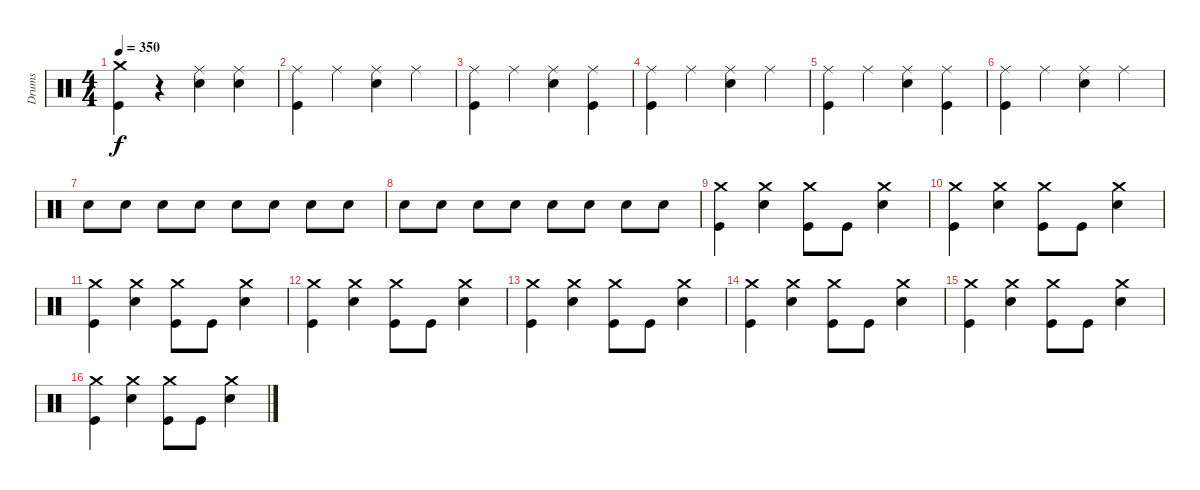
\track ("Drums" "Drums") {instrument percussion}
\staff {score}
\articulation defaults
\ts (4 4)
\tempo 350
\clef neutral
\ks c
("Crash medium (hit)" "Kick (hit)").4{dy f} r.4 ("Ride (middle)" "Snare (hit) 2").4 ("Ride (middle)" "Snare (hit) 2").4 |
("Ride (middle)" "Kick (hit)").4 "Ride (middle)".4 ("Ride (middle)" "Snare (hit) 2").4 "Ride (middle)".4 |
("Ride (middle)" "Kick (hit)").4 "Ride (middle)".4 ("Ride (middle)" "Snare (hit) 2").4 ("Ride (middle)" "Kick (hit)").4 |
("Ride (middle)" "Kick (hit)").4 "Ride (middle)".4 ("Ride (middle)" "Snare (hit) 2").4 "Ride (middle)".4 |
("Ride (middle)" "Kick (hit)").4 "Ride (middle)".4 ("Ride (middle)" "Snare (hit) 2").4 ("Ride (middle)" "Kick (hit)").4 |
("Ride (middle)" "Kick (hit)").4 "Ride (middle)".4 ("Ride (middle)" "Snare (hit) 2").4 "Ride (middle)".4 |
"Snare (hit) 2".8 "Snare (hit) 2".8 "Snare (hit) 2".8 "Snare (hit) 2".8 "Snare (hit) 2".8 "Snare (hit) 2".8 "Snare (hit) 2".8 "Snare (hit) 2".8 |
"Snare (hit) 2".8 "Snare (hit) 2".8 "Snare (hit) 2".8 "Snare (hit) 2".8 "Snare (hit) 2".8 "Snare (hit) 2".8 "Snare (hit) 2".8 "Snare (hit) 2".8 |
("Crash medium (hit)" "Kick (hit)").4 ("Crash medium (hit)" "Snare (hit) 2").4 ("Crash medium (hit)" "Kick (hit)").8 "Kick (hit)".8 ("Crash medium (hit)" "Snare (hit) 2").4 |
("Crash medium (hit)" "Kick (hit)").4 ("Crash medium (hit)" "Snare (hit) 2").4 ("Crash medium (hit)" "Kick (hit)").8 "Kick (hit)".8 ("Crash medium (hit)" "Snare (hit) 2").4 |
("Crash medium (hit)" "Kick (hit)").4 ("Crash medium (hit)" "Snare (hit) 2").4 ("Crash medium (hit)" "Kick (hit)").8 "Kick (hit)".8 ("Crash medium (hit)" "Snare (hit) 2").4 |
("Crash medium (hit)" "Kick (hit)").4 ("Crash medium (hit)" "Snare (hit) 2").4 ("Crash medium (hit)" "Kick (hit)").8 "Kick (hit)".8 ("Crash medium (hit)" "Snare (hit) 2").4 |
("Crash medium (hit)" "Kick (hit)").4 ("Crash medium (hit)" "Snare (hit) 2").4 ("Crash medium (hit)" "Kick (hit)").8 "Kick (hit)".8 ("Crash medium (hit)" "Snare (hit) 2").4 |
("Crash medium (hit)" "Kick (hit)").4 ("Crash medium (hit)" "Snare (hit) 2").4 ("Crash medium (hit)" "Kick (hit)").8 "Kick (hit)".8 ("Crash medium (hit)" "Snare (hit) 2").4 |
("Crash medium (hit)" "Kick (hit)").4 ("Crash medium (hit)" "Snare (hit) 2").4 ("Crash medium (hit)" "Kick (hit)").8 "Kick (hit)".8 ("Crash medium (hit)" "Snare (hit) 2").4 |
("Crash medium (hit)" "Kick (hit)").4 ("Crash medium (hit)" "Snare (hit) 2").4 ("Crash medium (hit)" "Kick (hit)").8 "Kick (hit)".8 ("Crash medium (hit)" "Snare (hit) 2").4
